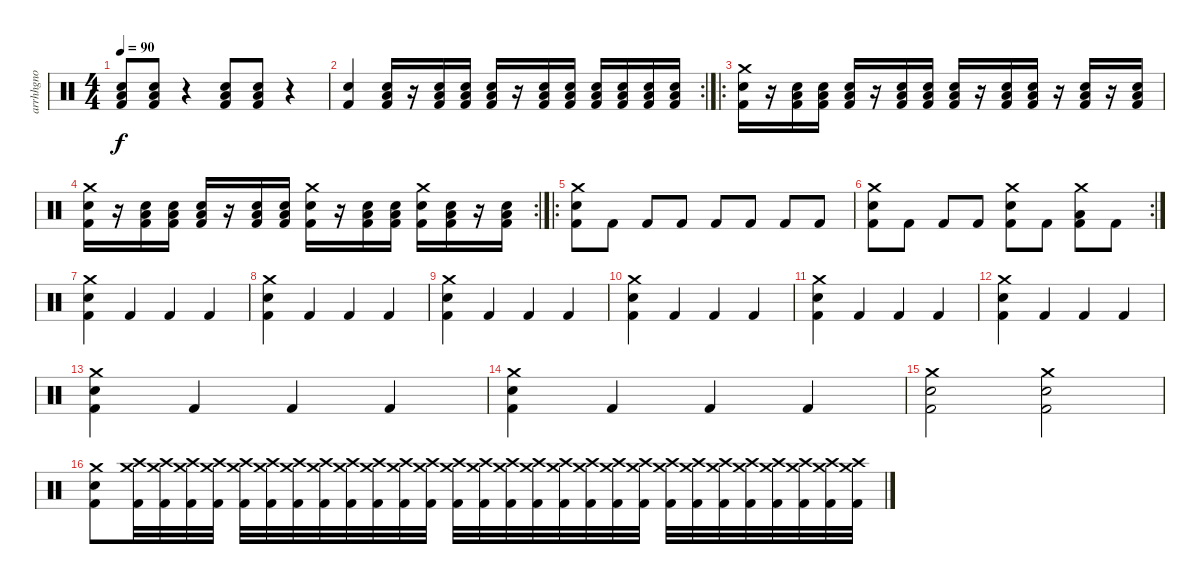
\track ("arrhhgno" "arrhhgno") {instrument percussion}
\staff {score}
\articulation defaults
\ts (4 4)
\tempo 90
\clef neutral
\ks c
("Kick (hit) 2" "Low Tom (hit)" "Electric Snare (hit)").8{dy f} ("Kick (hit) 2" "Low Tom (hit)" "Electric Snare (hit)").8 r.4 ("Electric Snare (hit)" "Kick (hit) 2" "Low Tom (hit)").8 ("Kick (hit) 2" "Electric Snare (hit)" "Low Tom (hit)").8 r.4 |
\rc 2
("Kick (hit) 2" "Electric Snare (hit)").4 ("Kick (hit) 2" "Low Tom (hit)" "Electric Snare (hit)").16 r.16 ("Kick (hit) 2" "Electric Snare (hit)" "Low Tom (hit)").16 ("Kick (hit) 2" "Low Tom (hit)" "Electric Snare (hit)").16 ("Kick (hit) 2" "Low Tom (hit)" "Electric Snare (hit)").16 r.16 ("Kick (hit) 2" "Low Tom (hit)" "Electric Snare (hit)").16 ("Kick (hit) 2" "Electric Snare (hit)" "Low Tom (hit)").16 ("Kick (hit) 2" "Low Tom (hit)" "Electric Snare (hit)").16 ("Kick (hit) 2" "Electric Snare (hit)" "Low Tom (hit)").16 ("Kick (hit) 2" "Electric Snare (hit)" "Low Tom (hit)").16 ("Low Tom (hit)" "Electric Snare (hit)" "Kick (hit) 2").16 |
\ro
("Kick (hit) 2" "Crash medium (hit)" "Electric Snare (hit)").16 r.16 ("Kick (hit) 2" "Low Tom (hit)" "Electric Snare (hit)").16 ("Kick (hit) 2" "Low Tom (hit)" "Electric Snare (hit)").16 ("Kick (hit) 2" "Low Tom (hit)" "Electric Snare (hit)").16 r.16 ("Electric Snare (hit)" "Low Tom (hit)" "Kick (hit) 2").16 ("Electric Snare (hit)" "Low Tom (hit)" "Kick (hit) 2").16 ("Electric Snare (hit)" "Kick (hit) 2" "Low Tom (hit)").16 r.16 ("Kick (hit) 2" "Electric Snare (hit)" "Low Tom (hit)").16 ("Kick (hit) 2" "Low Tom (hit)" "Electric Snare (hit)").16 r.16 ("Kick (hit) 2" "Low Tom (hit)" "Electric Snare (hit)").16 r.16 ("Kick (hit) 2" "Low Tom (hit)" "Electric Snare (hit)").16 |
\rc 2
("Electric Snare (hit)" "Crash medium (hit)" "Kick (hit) 2").16 r.16 ("Low Tom (hit)" "Electric Snare (hit)" "Kick (hit) 2").16 ("Electric Snare (hit)" "Low Tom (hit)" "Kick (hit) 2").16 ("Low Tom (hit)" "Electric Snare (hit)" "Kick (hit) 2").16 r.16 ("Electric Snare (hit)" "Low Tom (hit)" "Kick (hit) 2").16 ("Electric Snare (hit)" "Low Tom (hit)" "Kick (hit) 2").16 ("Electric Snare (hit)" "Crash medium (hit)" "Kick (hit) 2").16 r.16 ("Low Tom (hit)" "Kick (hit) 2" "Electric Snare (hit)").16 ("Low Tom (hit)" "Electric Snare (hit)" "Kick (hit) 2").16 ("Kick (hit) 2" "Electric Snare (hit)" "Crash medium (hit)").16 ("Low Tom (hit)" "Electric Snare (hit)" "Kick (hit) 2").16 r.16 ("Electric Snare (hit)" "Low Tom (hit)" "Kick (hit) 2").16 |
\ro
("Crash medium (hit)" "Kick (hit) 2" "Electric Snare (hit)").8 "Kick (hit) 2".8 "Kick (hit) 2".8 "Kick (hit) 2".8 "Kick (hit) 2".8 "Kick (hit) 2".8 "Kick (hit) 2".8 "Kick (hit) 2".8 |
\rc 2
("Crash medium (hit)" "Kick (hit) 2" "Electric Snare (hit)").8 "Kick (hit) 2".8 "Kick (hit) 2".8 "Kick (hit) 2".8 ("Crash medium (hit)" "Kick (hit) 2" "Electric Snare (hit)").8 "Kick (hit) 2".8 ("Crash medium (hit)" "Low Tom (hit)" "Kick (hit) 2").8 "Kick (hit) 2".8 |
("Crash medium (hit)" "Kick (hit) 2" "Electric Snare (hit)").4 "Kick (hit) 2".4 "Kick (hit) 2".4 "Kick (hit) 2".4 |
("Crash medium (hit)" "Kick (hit) 2" "Electric Snare (hit)").4 "Kick (hit) 2".4 "Kick (hit) 2".4 "Kick (hit) 2".4 |
("Crash medium (hit)" "Kick (hit) 2" "Electric Snare (hit)").4 "Kick (hit) 2".4 "Kick (hit) 2".4 "Kick (hit) 2".4 |
("Crash medium (hit)" "Kick (hit) 2" "Electric Snare (hit)").4 "Kick (hit) 2".4 "Kick (hit) 2".4 "Kick (hit) 2".4 |
("Crash medium (hit)" "Kick (hit) 2" "Electric Snare (hit)").4 "Kick (hit) 2".4 "Kick (hit) 2".4 "Kick (hit) 2".4 |
("Crash medium (hit)" "Kick (hit) 2" "Electric Snare (hit)").4 "Kick (hit) 2".4 "Kick (hit) 2".4 "Kick (hit) 2".4 |
("Crash medium (hit)" "Kick (hit) 2" "Electric Snare (hit)").4 "Kick (hit) 2".4 "Kick (hit) 2".4 "Kick (hit) 2".4 |
("Crash medium (hit)" "Kick (hit) 2" "Electric Snare (hit)").4 "Kick (hit) 2".4 "Kick (hit) 2".4 "Kick (hit) 2".4 |
("Kick (hit) 2" "Crash medium (hit)" "Electric Snare (hit)").2 ("Kick (hit) 2" "Crash medium (hit)" "Electric Snare (hit)").2 |
("Kick (hit) 2" "Electric Snare (hit)" "Crash medium (hit)").8 ("Crash high (hit)" "Crash medium (hit)" "Kick (hit) 2").32 ("Crash high (hit)" "Crash medium (hit)" "Kick (hit) 2").32 ("Crash high (hit)" "Crash medium (hit)" "Kick (hit) 2").32 ("Crash high (hit)" "Crash medium (hit)" "Kick (hit) 2").32 ("Crash high (hit)" "Crash medium (hit)" "Kick (hit) 2").32 ("Crash high (hit)" "Crash medium (hit)" "Kick (hit) 2").32 ("Crash high (hit)" "Crash medium (hit)" "Kick (hit) 2").32 ("Crash high (hit)" "Crash medium (hit)" "Kick (hit) 2").32 ("Crash high (hit)" "Crash medium (hit)" "Kick (hit) 2").32 ("Crash high (hit)" "Crash medium (hit)" "Kick (hit) 2").32 ("Crash medium (hit)" "Crash high (hit)" "Kick (hit) 2").32 ("Crash medium (hit)" "Crash high (hit)" "Kick (hit) 2").32 ("Crash medium (hit)" "Crash high (hit)" "Kick (hit) 2").32 ("Crash medium (hit)" "Crash high (hit)" "Kick (hit) 2").32 ("Crash medium (hit)" "Crash high (hit)" "Kick (hit) 2").32 ("Crash medium (hit)" "Crash high (hit)" "Kick (hit) 2").32 ("Crash medium (hit)" "Crash high (hit)" "Kick (hit) 2").32 ("Crash medium (hit)" "Crash high (hit)" "Kick (hit) 2").32 ("Crash medium (hit)" "Crash high (hit)" "Kick (hit) 2").32 ("Crash medium (hit)" "Crash high (hit)" "Kick (hit) 2").32 ("Crash medium (hit)" "Crash high (hit)" "Kick (hit) 2").32 ("Crash medium (hit)" "Crash high (hit)" "Kick (hit) 2").32 ("Crash medium (hit)" "Crash high (hit)" "Kick (hit) 2").32 ("Crash medium (hit)" "Crash high (hit)" "Kick (hit) 2").32 ("Crash medium (hit)" "Crash high (hit)" "Kick (hit) 2").32 ("Crash medium (hit)" "Crash high (hit)" "Kick (hit) 2").32 ("Crash medium (hit)" "Crash high (hit)" "Kick (hit) 2").32 ("Crash medium (hit)" "Crash high (hit)" "Kick (hit) 2").32
